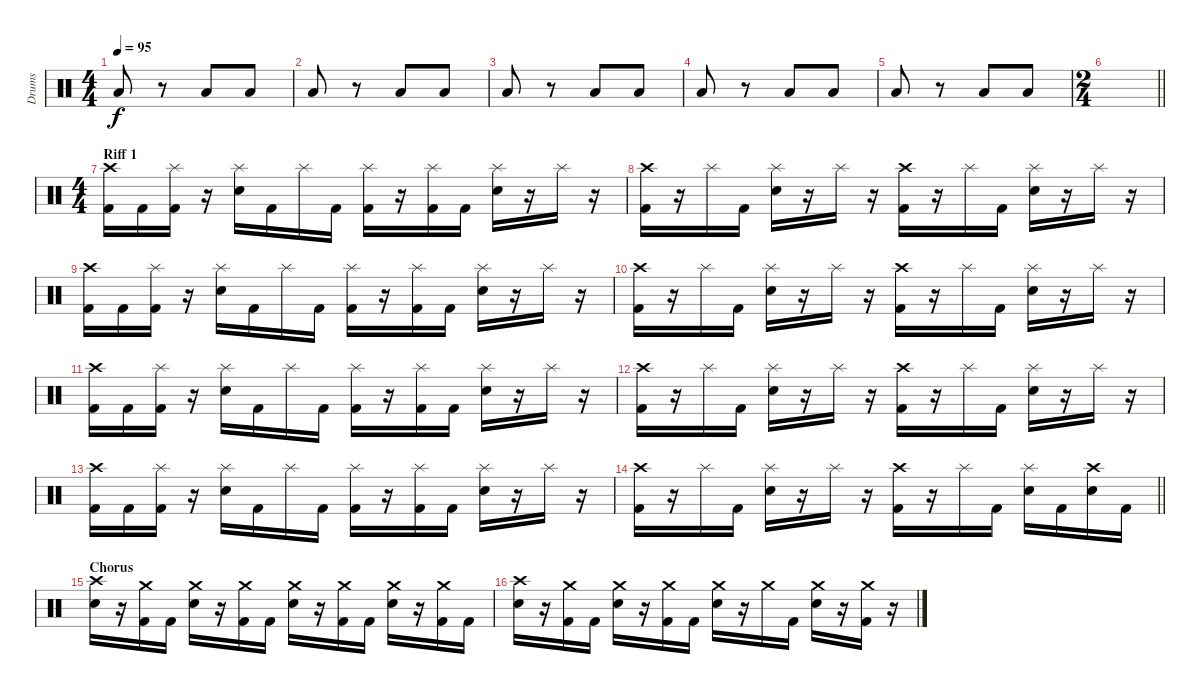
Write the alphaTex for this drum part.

\track ("Drums" "Drums") {instrument percussion}
\staff {score}
\articulation defaults
\ts (4 4)
\tempo 95
\clef neutral
\ks c "Low Floor Tom (hit)".8{dy f}
r.8 "Low Floor Tom (hit)".8 "Low Floor Tom (hit)".8 |
"Low Floor Tom (hit)".8 r.8 "Low Floor Tom (hit)".8 "Low Floor Tom (hit)".8 |
"Low Floor Tom (hit)".8 r.8 "Low Floor Tom (hit)".8 "Low Floor Tom (hit)".8 |
"Low Floor Tom (hit)".8 r.8 "Low Floor Tom (hit)".8 "Low Floor Tom (hit)".8 |
"Low Floor Tom (hit)".8 r.8 "Low Floor Tom (hit)".8 "Low Floor Tom (hit)".8 |
\ts (2 4)
\barLineRight lightlight
|
\ts (4 4)
\section ("" "Riff 1")
("Crash high (hit)" "Kick (hit) 2").16 "Kick (hit) 2".16 ("Splash (hit)" "Kick (hit) 2").16 r.16 ("Splash (hit)" "Electric Snare (hit)").16 "Kick (hit) 2".16 "Splash (hit)".16 "Kick (hit) 2".16 ("Splash (hit)" "Kick (hit) 2").16 r.16 ("Splash (hit)" "Kick (hit) 2").16 "Kick (hit) 2".16 ("Splash (hit)" "Electric Snare (hit)").16 r.16 "Splash (hit)".16 r.16 |
("Crash high (hit)" "Kick (hit) 2").16 r.16 "Splash (hit)".16 "Kick (hit) 2".16 ("Splash (hit)" "Electric Snare (hit)").16 r.16 "Splash (hit)".16 r.16 ("Crash high (hit)" "Kick (hit) 2").16 r.16 "Splash (hit)".16 "Kick (hit) 2".16 ("Splash (hit)" "Electric Snare (hit)").16 r.16 "Splash (hit)".16 r.16 |
("Crash high (hit)" "Kick (hit) 2").16 "Kick (hit) 2".16 ("Splash (hit)" "Kick (hit) 2").16 r.16 ("Splash (hit)" "Electric Snare (hit)").16 "Kick (hit) 2".16 "Splash (hit)".16 "Kick (hit) 2".16 ("Splash (hit)" "Kick (hit) 2").16 r.16 ("Splash (hit)" "Kick (hit) 2").16 "Kick (hit) 2".16 ("Splash (hit)" "Electric Snare (hit)").16 r.16 "Splash (hit)".16 r.16 |
("Crash high (hit)" "Kick (hit) 2").16 r.16 "Splash (hit)".16 "Kick (hit) 2".16 ("Splash (hit)" "Electric Snare (hit)").16 r.16 "Splash (hit)".16 r.16 ("Crash high (hit)" "Kick (hit) 2").16 r.16 "Splash (hit)".16 "Kick (hit) 2".16 ("Splash (hit)" "Electric Snare (hit)").16 r.16 "Splash (hit)".16 r.16 |
("Crash high (hit)" "Kick (hit) 2").16 "Kick (hit) 2".16 ("Splash (hit)" "Kick (hit) 2").16 r.16 ("Splash (hit)" "Electric Snare (hit)").16 "Kick (hit) 2".16 "Splash (hit)".16 "Kick (hit) 2".16 ("Splash (hit)" "Kick (hit) 2").16 r.16 ("Splash (hit)" "Kick (hit) 2").16 "Kick (hit) 2".16 ("Splash (hit)" "Electric Snare (hit)").16 r.16 "Splash (hit)".16 r.16 |
("Crash high (hit)" "Kick (hit) 2").16 r.16 "Splash (hit)".16 "Kick (hit) 2".16 ("Splash (hit)" "Electric Snare (hit)").16 r.16 "Splash (hit)".16 r.16 ("Crash high (hit)" "Kick (hit) 2").16 r.16 "Splash (hit)".16 "Kick (hit) 2".16 ("Splash (hit)" "Electric Snare (hit)").16 r.16 "Splash (hit)".16 r.16 |
("Crash high (hit)" "Kick (hit) 2").16 "Kick (hit) 2".16 ("Splash (hit)" "Kick (hit) 2").16 r.16 ("Splash (hit)" "Electric Snare (hit)").16 "Kick (hit) 2".16 "Splash (hit)".16 "Kick (hit) 2".16 ("Splash (hit)" "Kick (hit) 2").16 r.16 ("Splash (hit)" "Kick (hit) 2").16 "Kick (hit) 2".16 ("Splash (hit)" "Electric Snare (hit)").16 r.16 "Splash (hit)".16 r.16 |
\barLineRight lightlight
("Crash high (hit)" "Kick (hit) 2").16 r.16 "Splash (hit)".16 "Kick (hit) 2".16 ("Splash (hit)" "Electric Snare (hit)").16 r.16 "Splash (hit)".16 r.16 ("Crash high (hit)" "Kick (hit) 2").16 r.16 "Splash (hit)".16 "Kick (hit) 2".16 ("Splash (hit)" "Electric Snare (hit)").16 "Kick (hit) 2".16 ("Crash high (hit)" "Electric Snare (hit)").16 "Kick (hit) 2".16 |
\section ("" "Chorus")
("Crash high (hit)" "Electric Snare (hit)").16 r.16 ("Crash medium (hit)" "Kick (hit) 2").16 "Kick (hit) 2".16 ("Crash medium (hit)" "Electric Snare (hit)").16 r.16 ("Crash medium (hit)" "Kick (hit) 2").16 "Kick (hit) 2".16 ("Crash medium (hit)" "Electric Snare (hit)").16 r.16 ("Crash medium (hit)" "Kick (hit) 2").16 "Kick (hit) 2".16 ("Crash medium (hit)" "Electric Snare (hit)").16 r.16 ("Crash medium (hit)" "Kick (hit) 2").16 "Kick (hit) 2".16 |
("Crash high (hit)" "Electric Snare (hit)").16 r.16 ("Crash medium (hit)" "Kick (hit) 2").16 "Kick (hit) 2".16 ("Crash medium (hit)" "Electric Snare (hit)").16 r.16 ("Crash medium (hit)" "Kick (hit) 2").16 "Kick (hit) 2".16 ("Crash medium (hit)" "Electric Snare (hit)").16 r.16 "Crash medium (hit)".16 "Kick (hit) 2".16 ("Crash medium (hit)" "Electric Snare (hit)").16 r.16 ("Crash medium (hit)" "Kick (hit) 2").16 r.16
